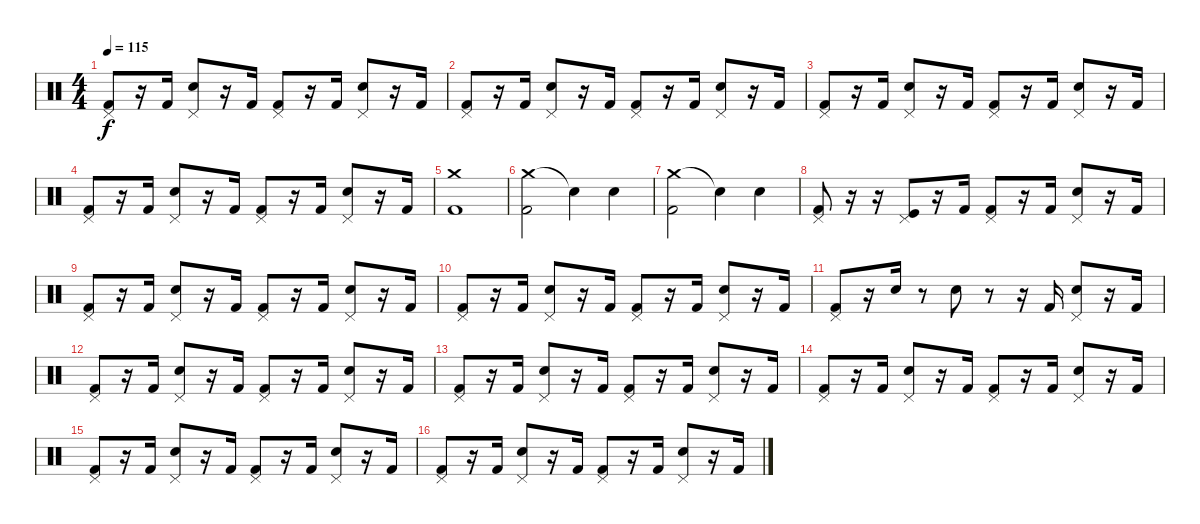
\track "" {instrument percussion}
\staff {score}
\articulation defaults
\ts (4 4)
\tempo 115
\clef neutral
\ks c
("Pedal Hi-Hat (hit)" "Kick (hit) 2").8{dy f} r.16 "Kick (hit) 2".16 ("Pedal Hi-Hat (hit)" "Snare (hit) 2").8 r.16 "Kick (hit) 2".16 ("Pedal Hi-Hat (hit)" "Kick (hit) 2").8 r.16 "Kick (hit) 2".16 ("Pedal Hi-Hat (hit)" "Snare (hit) 2").8 r.16 "Kick (hit) 2".16 |
("Pedal Hi-Hat (hit)" "Kick (hit) 2").8 r.16 "Kick (hit) 2".16 ("Pedal Hi-Hat (hit)" "Snare (hit) 2").8 r.16 "Kick (hit) 2".16 ("Pedal Hi-Hat (hit)" "Kick (hit) 2").8 r.16 "Kick (hit) 2".16 ("Pedal Hi-Hat (hit)" "Snare (hit) 2").8 r.16 "Kick (hit) 2".16 |
("Pedal Hi-Hat (hit)" "Kick (hit) 2").8 r.16 "Kick (hit) 2".16 ("Pedal Hi-Hat (hit)" "Snare (hit) 2").8 r.16 "Kick (hit) 2".16 ("Pedal Hi-Hat (hit)" "Kick (hit) 2").8 r.16 "Kick (hit) 2".16 ("Pedal Hi-Hat (hit)" "Snare (hit) 2").8 r.16 "Kick (hit) 2".16 |
("Pedal Hi-Hat (hit)" "Kick (hit) 2").8 r.16 "Kick (hit) 2".16 ("Pedal Hi-Hat (hit)" "Snare (hit) 2").8 r.16 "Kick (hit) 2".16 ("Pedal Hi-Hat (hit)" "Kick (hit) 2").8 r.16 "Kick (hit) 2".16 ("Pedal Hi-Hat (hit)" "Snare (hit) 2").8 r.16 "Kick (hit) 2".16 |
("Crash medium (hit)" "Kick (hit) 2").1 |
("Crash medium (hit)" "Kick (hit) 2").2 "Snare (hit)"{t}.4 "Snare (hit) 2".4 |
("Crash medium (hit)" "Kick (hit) 2").2 "Snare (hit)"{t}.4 "Snare (hit) 2".4 |
("Pedal Hi-Hat (hit)" "Kick (hit) 2").8 r.16 r.16 ("Pedal Hi-Hat (hit)" "Kick (hit)").8 r.16 "Kick (hit) 2".16 ("Pedal Hi-Hat (hit)" "Kick (hit) 2").8 r.16 "Kick (hit) 2".16 ("Pedal Hi-Hat (hit)" "Snare (hit) 2").8 r.16 "Kick (hit) 2".16 |
("Pedal Hi-Hat (hit)" "Kick (hit) 2").8 r.16 "Kick (hit) 2".16 ("Pedal Hi-Hat (hit)" "Snare (hit) 2").8 r.16 "Kick (hit) 2".16 ("Pedal Hi-Hat (hit)" "Kick (hit) 2").8 r.16 "Kick (hit) 2".16 ("Pedal Hi-Hat (hit)" "Snare (hit) 2").8 r.16 "Kick (hit) 2".16 |
("Pedal Hi-Hat (hit)" "Kick (hit) 2").8 r.16 "Kick (hit) 2".16 ("Pedal Hi-Hat (hit)" "Snare (hit) 2").8 r.16 "Kick (hit) 2".16 ("Pedal Hi-Hat (hit)" "Kick (hit) 2").8 r.16 "Kick (hit) 2".16 ("Pedal Hi-Hat (hit)" "Snare (hit) 2").8 r.16 "Kick (hit) 2".16 |
("Pedal Hi-Hat (hit)" "Kick (hit) 2").8 r.16 "Snare (hit) 2".16 r.8 "Snare (hit) 2".8 r.8 r.16 "Kick (hit) 2".16 ("Pedal Hi-Hat (hit)" "Snare (hit) 2").8 r.16 "Kick (hit) 2".16 |
("Pedal Hi-Hat (hit)" "Kick (hit) 2").8 r.16 "Kick (hit) 2".16 ("Pedal Hi-Hat (hit)" "Snare (hit) 2").8 r.16 "Kick (hit) 2".16 ("Pedal Hi-Hat (hit)" "Kick (hit) 2").8 r.16 "Kick (hit) 2".16 ("Pedal Hi-Hat (hit)" "Snare (hit) 2").8 r.16 "Kick (hit) 2".16 |
("Pedal Hi-Hat (hit)" "Kick (hit) 2").8 r.16 "Kick (hit) 2".16 ("Pedal Hi-Hat (hit)" "Snare (hit) 2").8 r.16 "Kick (hit) 2".16 ("Pedal Hi-Hat (hit)" "Kick (hit) 2").8 r.16 "Kick (hit) 2".16 ("Pedal Hi-Hat (hit)" "Snare (hit) 2").8 r.16 "Kick (hit) 2".16 |
("Pedal Hi-Hat (hit)" "Kick (hit) 2").8 r.16 "Kick (hit) 2".16 ("Pedal Hi-Hat (hit)" "Snare (hit) 2").8 r.16 "Kick (hit) 2".16 ("Pedal Hi-Hat (hit)" "Kick (hit) 2").8 r.16 "Kick (hit) 2".16 ("Pedal Hi-Hat (hit)" "Snare (hit) 2").8 r.16 "Kick (hit) 2".16 |
("Pedal Hi-Hat (hit)" "Kick (hit) 2").8 r.16 "Kick (hit) 2".16 ("Pedal Hi-Hat (hit)" "Snare (hit) 2").8 r.16 "Kick (hit) 2".16 ("Pedal Hi-Hat (hit)" "Kick (hit) 2").8 r.16 "Kick (hit) 2".16 ("Pedal Hi-Hat (hit)" "Snare (hit) 2").8 r.16 "Kick (hit) 2".16 |
("Pedal Hi-Hat (hit)" "Kick (hit) 2").8 r.16 "Kick (hit) 2".16 ("Pedal Hi-Hat (hit)" "Snare (hit) 2").8 r.16 "Kick (hit) 2".16 ("Pedal Hi-Hat (hit)" "Kick (hit) 2").8 r.16 "Kick (hit) 2".16 ("Pedal Hi-Hat (hit)" "Snare (hit) 2").8 r.16 "Kick (hit) 2".16
